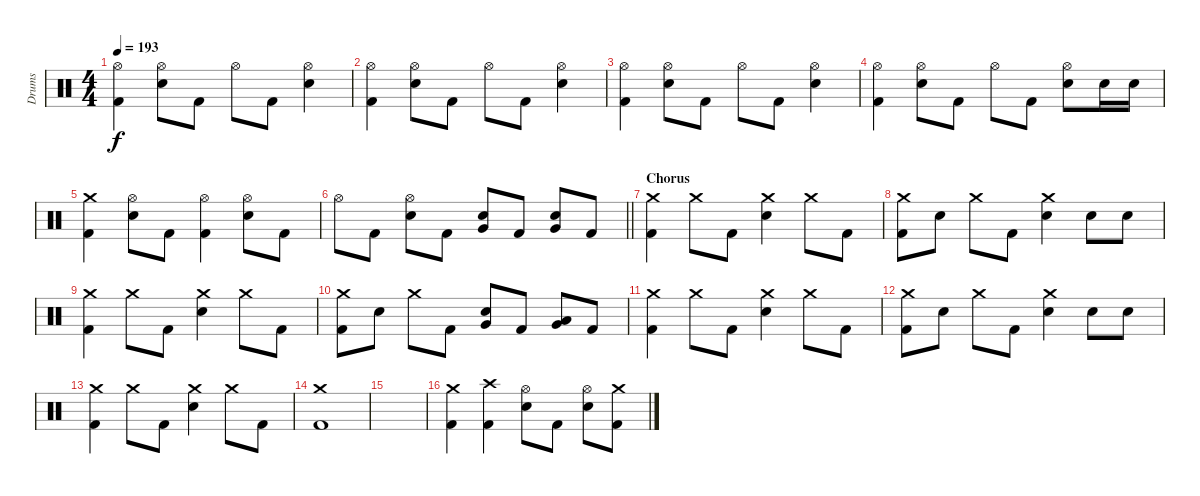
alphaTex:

\track ("Drums" "Drums") {instrument percussion}
\staff {score}
\articulation defaults
\ts (4 4)
\tempo 193
\clef neutral
\ks c
("Hi-Hat (open)" "Kick (hit) 2").4{dy f} ("Hi-Hat (open)" "Electric Snare (hit)").8 "Kick (hit) 2".8 "Hi-Hat (open)".8 "Kick (hit) 2".8 ("Hi-Hat (open)" "Electric Snare (hit)").4 |
("Hi-Hat (open)" "Kick (hit) 2").4 ("Hi-Hat (open)" "Electric Snare (hit)").8 "Kick (hit) 2".8 "Hi-Hat (open)".8 "Kick (hit) 2".8 ("Hi-Hat (open)" "Electric Snare (hit)").4 |
("Hi-Hat (open)" "Kick (hit) 2").4 ("Hi-Hat (open)" "Electric Snare (hit)").8 "Kick (hit) 2".8 "Hi-Hat (open)".8 "Kick (hit) 2".8 ("Hi-Hat (open)" "Electric Snare (hit)").4 |
("Hi-Hat (open)" "Kick (hit) 2").4 ("Hi-Hat (open)" "Electric Snare (hit)").8 "Kick (hit) 2".8 "Hi-Hat (open)".8 "Kick (hit) 2".8 ("Hi-Hat (open)" "Electric Snare (hit)").8 "Electric Snare (hit)".16 "Electric Snare (hit)".16 |
("Crash medium (hit)" "Kick (hit) 2").4 ("Hi-Hat (open)" "Electric Snare (hit)").8 "Kick (hit) 2".8 ("Hi-Hat (open)" "Kick (hit) 2").4 ("Hi-Hat (open)" "Electric Snare (hit)").8 "Kick (hit) 2".8 |
\barLineRight lightlight "Hi-Hat (open)".8 "Kick (hit) 2".8
("Hi-Hat (open)" "Electric Snare (hit)").8 "Kick (hit) 2".8 ("Very Low Tom (hit)" "Electric Snare (hit)").8 "Kick (hit) 2".8 ("Very Low Tom (hit)" "Electric Snare (hit)").8 "Kick (hit) 2".8 |
\section ("" "Chorus")
("Crash medium (hit)" "Kick (hit) 2").4 "Crash medium (hit)".8 "Kick (hit) 2".8 ("Crash medium (hit)" "Electric Snare (hit)").4 "Crash medium (hit)".8 "Kick (hit) 2".8 |
("Crash medium (hit)" "Kick (hit) 2").8 "Electric Snare (hit)".8 "Crash medium (hit)".8 "Kick (hit) 2".8 ("Crash medium (hit)" "Electric Snare (hit)").4 "Electric Snare (hit)".8 "Electric Snare (hit)".8 |
("Crash medium (hit)" "Kick (hit) 2").4 "Crash medium (hit)".8 "Kick (hit) 2".8 ("Crash medium (hit)" "Electric Snare (hit)").4 "Crash medium (hit)".8 "Kick (hit) 2".8 |
("Crash medium (hit)" "Kick (hit) 2").8 "Electric Snare (hit)".8 "Crash medium (hit)".8 "Kick (hit) 2".8 ("Very Low Tom (hit)" "Electric Snare (hit)").8 "Kick (hit) 2".8 ("Low Floor Tom (hit)" "Very Low Tom (hit)").8 "Kick (hit) 2".8 |
("Crash medium (hit)" "Kick (hit) 2").4 "Crash medium (hit)".8 "Kick (hit) 2".8 ("Crash medium (hit)" "Electric Snare (hit)").4 "Crash medium (hit)".8 "Kick (hit) 2".8 |
("Crash medium (hit)" "Kick (hit) 2").8 "Electric Snare (hit)".8 "Crash medium (hit)".8 "Kick (hit) 2".8 ("Crash medium (hit)" "Electric Snare (hit)").4 "Electric Snare (hit)".8 "Electric Snare (hit)".8 |
("Crash medium (hit)" "Kick (hit) 2").4 "Crash medium (hit)".8 "Kick (hit) 2".8 ("Crash medium (hit)" "Electric Snare (hit)").4 "Crash medium (hit)".8 "Kick (hit) 2".8 |
("Crash medium (hit)" "Kick (hit) 2").1 |
|
("Crash medium (hit)" "Kick (hit) 2").4 ("Crash high (hit)" "Kick (hit) 2").4 ("Hi-Hat (open)" "Electric Snare (hit)").8 "Kick (hit) 2".8 ("Hi-Hat (open)" "Electric Snare (hit)").8 ("Crash medium (hit)" "Kick (hit) 2").8
